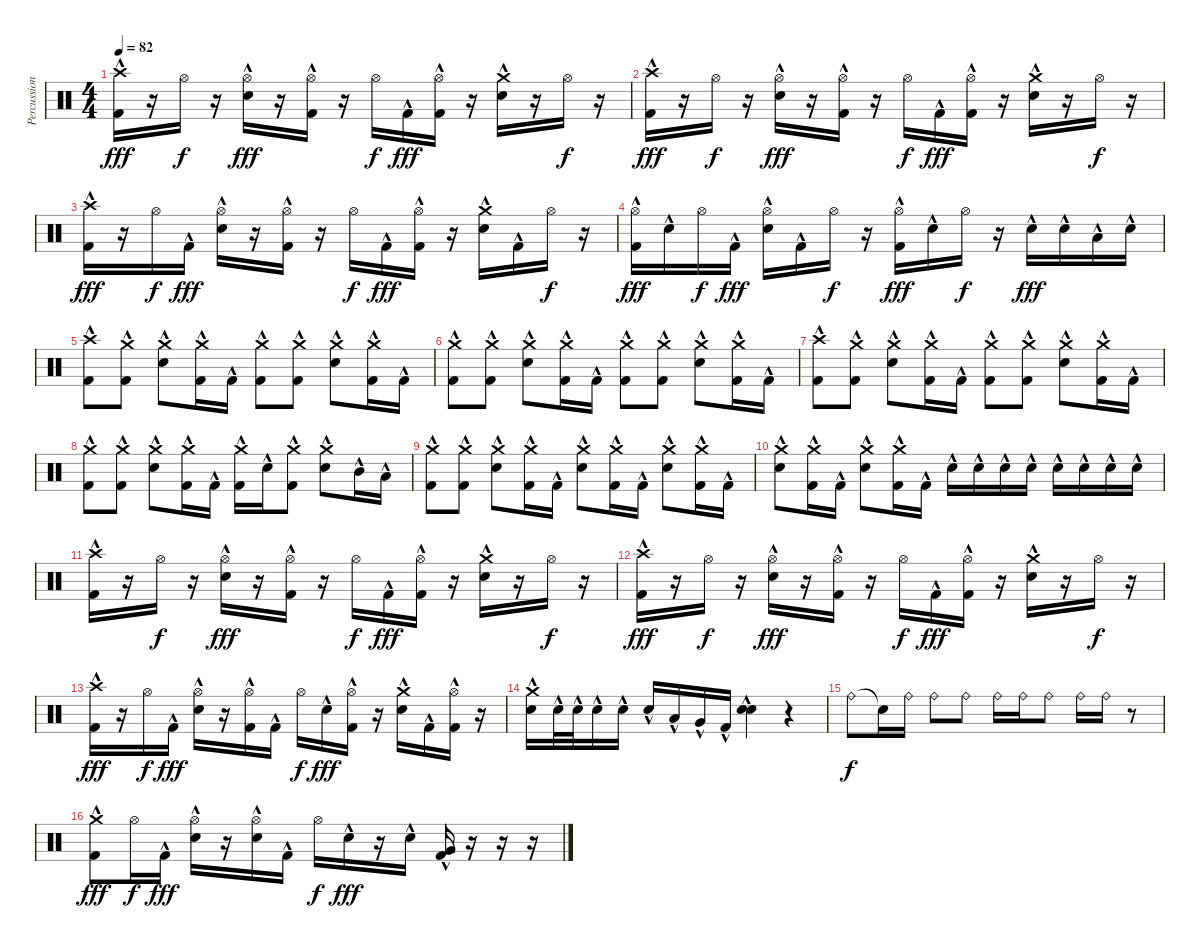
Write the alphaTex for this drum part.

\track ("Percussion" "Percussion") {instrument percussion}
\staff {score}
\articulation defaults
\ts (4 4)
\tempo 82
\clef neutral
\ks c
("Kick (hit) 2"{hac} "Crash high (hit)").16{dy fff} r.16 "Hi-Hat (open)".16{dy f} r.16 ("Electric Snare (hit)"{hac} "Hi-Hat (open)").16{dy fff} r.16 ("Kick (hit) 2"{hac} "Hi-Hat (open)").16 r.16 "Hi-Hat (open)".16{dy f} "Kick (hit) 2"{hac}.16{dy fff} ("Kick (hit) 2"{hac} "Hi-Hat (open)").16 r.16 ("Electric Snare (hit)"{hac} "Crash medium (hit)").16 r.16 "Hi-Hat (open)".16{dy f} r.16 |
("Kick (hit) 2"{hac} "Crash high (hit)").16{dy fff} r.16 "Hi-Hat (open)".16{dy f} r.16 ("Electric Snare (hit)"{hac} "Hi-Hat (open)").16{dy fff} r.16 ("Kick (hit) 2"{hac} "Hi-Hat (open)").16 r.16 "Hi-Hat (open)".16{dy f} "Kick (hit) 2"{hac}.16{dy fff} ("Kick (hit) 2"{hac} "Hi-Hat (open)").16 r.16 ("Electric Snare (hit)"{hac} "Crash medium (hit)").16 r.16 "Hi-Hat (open)".16{dy f} r.16 |
("Kick (hit) 2"{hac} "Crash high (hit)").16{dy fff} r.16 "Hi-Hat (open)".16{dy f} "Kick (hit) 2"{hac}.16{dy fff} ("Electric Snare (hit)"{hac} "Hi-Hat (open)").16 r.16 ("Kick (hit) 2"{hac} "Hi-Hat (open)").16 r.16 "Hi-Hat (open)".16{dy f} "Kick (hit) 2"{hac}.16{dy fff} ("Kick (hit) 2"{hac} "Hi-Hat (open)").16 r.16 ("Electric Snare (hit)"{hac} "Crash medium (hit)").16 "Kick (hit) 2"{hac}.16 "Hi-Hat (open)".16{dy f} r.16 |
("Kick (hit) 2"{hac} "Hi-Hat (open)").16{dy fff} "Electric Snare (hit)"{hac}.16 "Hi-Hat (open)".16{dy f} "Kick (hit) 2"{hac}.16{dy fff} ("Electric Snare (hit)"{hac} "Hi-Hat (open)").16 "Kick (hit) 2"{hac}.16 "Hi-Hat (open)".16{dy f} r.16 ("Kick (hit) 2"{hac} "Hi-Hat (open)").16{dy fff} "Electric Snare (hit)"{hac}.16 "Hi-Hat (open)".16{dy f} r.16 "Electric Snare (hit)"{hac}.16{dy fff} "Electric Snare (hit)"{hac}.16 "Low Tom (hit)"{hac}.16 "Electric Snare (hit)"{hac}.16 |
("Kick (hit) 2"{hac} "Crash high (hit)").8 ("Kick (hit) 2"{hac} "Crash medium (hit)").8 ("Electric Snare (hit)"{hac} "Crash medium (hit)").8 ("Kick (hit) 2"{hac} "Crash medium (hit)").16 "Kick (hit) 2"{hac}.16 ("Kick (hit) 2"{hac} "Crash medium (hit)").8 ("Kick (hit) 2"{hac} "Crash medium (hit)").8 ("Electric Snare (hit)"{hac} "Crash medium (hit)").8 ("Kick (hit) 2"{hac} "Crash medium (hit)").16 "Kick (hit) 2"{hac}.16 |
("Kick (hit) 2"{hac} "Crash medium (hit)").8 ("Kick (hit) 2"{hac} "Crash medium (hit)").8 ("Electric Snare (hit)"{hac} "Crash medium (hit)").8 ("Kick (hit) 2"{hac} "Crash medium (hit)").16 "Kick (hit) 2"{hac}.16 ("Kick (hit) 2"{hac} "Crash medium (hit)").8 ("Kick (hit) 2"{hac} "Crash medium (hit)").8 ("Electric Snare (hit)"{hac} "Crash medium (hit)").8 ("Kick (hit) 2"{hac} "Crash medium (hit)").16 "Kick (hit) 2"{hac}.16 |
("Kick (hit) 2"{hac} "Crash high (hit)").8 ("Kick (hit) 2"{hac} "Crash medium (hit)").8 ("Electric Snare (hit)"{hac} "Crash medium (hit)").8 ("Kick (hit) 2"{hac} "Crash medium (hit)").16 "Kick (hit) 2"{hac}.16 ("Kick (hit) 2"{hac} "Crash medium (hit)").8 ("Kick (hit) 2"{hac} "Crash medium (hit)").8 ("Electric Snare (hit)"{hac} "Crash medium (hit)").8 ("Kick (hit) 2"{hac} "Crash medium (hit)").16 "Kick (hit) 2"{hac}.16 |
("Kick (hit) 2"{hac} "Crash medium (hit)").8 ("Kick (hit) 2"{hac} "Crash medium (hit)").8 ("Electric Snare (hit)"{hac} "Crash medium (hit)").8 ("Kick (hit) 2"{hac} "Crash medium (hit)").16 "Kick (hit) 2"{hac}.16 ("Kick (hit) 2"{hac} "Crash medium (hit)").16 "Electric Snare (hit)"{hac}.16 ("Kick (hit) 2"{hac} "Crash medium (hit)"{hac}).8 ("Electric Snare (hit)"{hac} "Crash medium (hit)").8 "Mid Tom (hit)"{hac}.16 "Low Tom (hit)"{hac}.16 |
("Kick (hit) 2"{hac} "Crash medium (hit)").8 ("Kick (hit) 2"{hac} "Crash medium (hit)").8 ("Electric Snare (hit)"{hac} "Crash medium (hit)").8 ("Kick (hit) 2"{hac} "Crash medium (hit)").16 "Kick (hit) 2"{hac}.16 ("Electric Snare (hit)"{hac} "Crash medium (hit)").8 ("Kick (hit) 2"{hac} "Crash medium (hit)").16 "Kick (hit) 2"{hac}.16 ("Electric Snare (hit)"{hac} "Crash medium (hit)").8 ("Kick (hit) 2"{hac} "Crash medium (hit)").16 "Kick (hit) 2"{hac}.16 |
("Electric Snare (hit)"{hac} "Crash medium (hit)").8 ("Kick (hit) 2"{hac} "Crash medium (hit)").16 "Kick (hit) 2"{hac}.16 ("Electric Snare (hit)"{hac} "Crash medium (hit)").8 ("Kick (hit) 2"{hac} "Crash medium (hit)").16 "Kick (hit) 2"{hac}.16 "Electric Snare (hit)"{hac}.16 "Electric Snare (hit)"{hac}.16 "Electric Snare (hit)"{hac}.16 "Electric Snare (hit)"{hac}.16 "Electric Snare (hit)"{hac}.16 "Electric Snare (hit)"{hac}.16 "Electric Snare (hit)"{hac}.16 "Electric Snare (hit)"{hac}.16 |
("Kick (hit) 2"{hac} "Crash high (hit)").16 r.16 "Hi-Hat (open)".16{dy f} r.16 ("Electric Snare (hit)"{hac} "Hi-Hat (open)").16{dy fff} r.16 ("Kick (hit) 2"{hac} "Hi-Hat (open)").16 r.16 "Hi-Hat (open)".16{dy f} "Kick (hit) 2"{hac}.16{dy fff} ("Kick (hit) 2"{hac} "Hi-Hat (open)").16 r.16 ("Electric Snare (hit)"{hac} "Crash medium (hit)").16 r.16 "Hi-Hat (open)".16{dy f} r.16 |
("Kick (hit) 2"{hac} "Crash high (hit)").16{dy fff} r.16 "Hi-Hat (open)".16{dy f} r.16 ("Electric Snare (hit)"{hac} "Hi-Hat (open)").16{dy fff} r.16 ("Kick (hit) 2"{hac} "Hi-Hat (open)").16 r.16 "Hi-Hat (open)".16{dy f} "Kick (hit) 2"{hac}.16{dy fff} ("Kick (hit) 2"{hac} "Hi-Hat (open)").16 r.16 ("Electric Snare (hit)"{hac} "Crash medium (hit)").16 r.16 "Hi-Hat (open)".16{dy f} r.16 |
("Kick (hit) 2"{hac} "Crash high (hit)").16{dy fff} r.16 "Hi-Hat (open)".16{dy f} "Kick (hit) 2"{hac}.16{dy fff} ("Electric Snare (hit)"{hac} "Hi-Hat (open)").16 r.16 ("Kick (hit) 2"{hac} "Hi-Hat (open)").16 "Kick (hit) 2"{hac}.16 "Hi-Hat (open)".16{dy f} "Electric Snare (hit)"{hac}.16{dy fff} ("Kick (hit) 2"{hac} "Hi-Hat (open)").16 r.16 ("Electric Snare (hit)"{hac} "Crash medium (hit)").16 "Kick (hit) 2"{hac}.16 ("Kick (hit) 2"{hac} "Hi-Hat (open)").16 r.16 |
("Electric Snare (hit)"{hac} "Crash medium (hit)").16 "Electric Snare (hit)"{hac}.32 "Electric Snare (hit)"{hac}.32 "Electric Snare (hit)"{hac}.16 "Electric Snare (hit)"{hac}.16 "Electric Snare (hit)"{hac}.16 "Low Tom (hit)"{hac}.16 "Very Low Tom (hit)"{hac}.16 "Kick (hit) 2"{hac}.16 ("Electric Snare (hit)"{hac} "Electric Snare (hit)"{hac}).4{bd 240} r.4 |
"Ride (bell)".8{dy f} "Snare (hit)"{t}.16 "Ride (bell)".16 "Ride (bell)".8 "Ride (bell)".8 "Ride (bell)".16 "Ride (bell)".16 "Ride (bell)".8 "Ride (bell)".16 "Ride (bell)".16 r.8 |
("Kick (hit) 2"{hac} "Crash medium (hit)").8{dy fff} "Hi-Hat (open)".16{dy f} "Kick (hit) 2"{hac}.16{dy fff} ("Electric Snare (hit)"{hac} "Hi-Hat (open)").16 r.16 ("Electric Snare (hit)"{hac} "Hi-Hat (open)").16 "Kick (hit) 2"{hac}.16 "Hi-Hat (open)".16{dy f} "Electric Snare (hit)"{hac}.16{dy fff} r.16 "Electric Snare (hit)"{hac}.16 ("Very Low Tom (hit)"{hac} "Kick (hit) 2"{hac}).16 r.16 r.16 r.16
